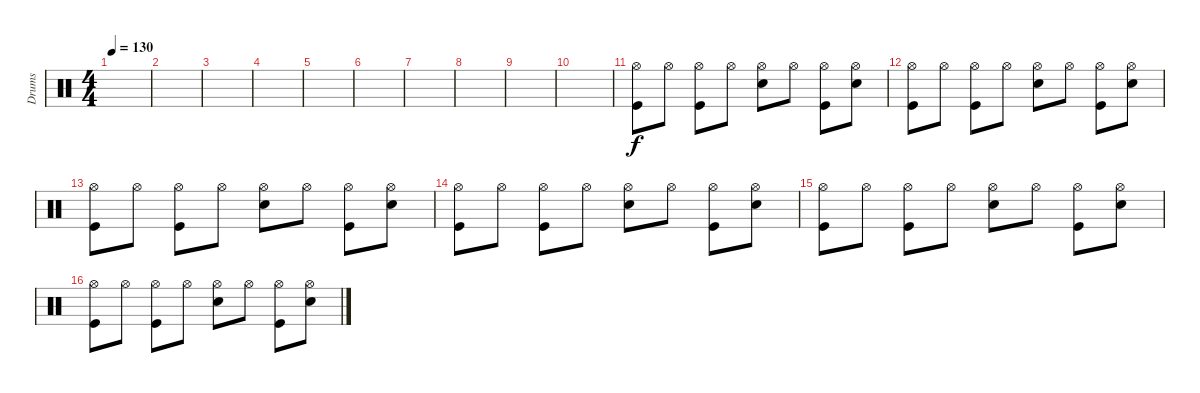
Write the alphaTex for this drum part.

\track ("Drums" "Drums") {instrument percussion}
\staff {score}
\articulation defaults
\ts (4 4)
\tempo 130
\clef neutral
\ks c
|
|
|
|
|
|
|
|
|
|
("Hi-Hat (open)" "Kick (hit)").8 "Hi-Hat (open)".8 ("Hi-Hat (open)" "Kick (hit)").8 "Hi-Hat (open)".8 ("Hi-Hat (open)" "Snare (hit) 2").8 "Hi-Hat (open)".8 ("Hi-Hat (open)" "Kick (hit)").8 ("Hi-Hat (open)" "Snare (hit) 2").8 |
("Hi-Hat (open)" "Kick (hit)").8 "Hi-Hat (open)".8 ("Hi-Hat (open)" "Kick (hit)").8 "Hi-Hat (open)".8 ("Hi-Hat (open)" "Snare (hit) 2").8 "Hi-Hat (open)".8 ("Hi-Hat (open)" "Kick (hit)").8 ("Hi-Hat (open)" "Snare (hit) 2").8 |
("Hi-Hat (open)" "Kick (hit)").8 "Hi-Hat (open)".8 ("Hi-Hat (open)" "Kick (hit)").8 "Hi-Hat (open)".8 ("Hi-Hat (open)" "Snare (hit) 2").8 "Hi-Hat (open)".8 ("Hi-Hat (open)" "Kick (hit)").8 ("Hi-Hat (open)" "Snare (hit) 2").8 |
("Hi-Hat (open)" "Kick (hit)").8 "Hi-Hat (open)".8 ("Hi-Hat (open)" "Kick (hit)").8 "Hi-Hat (open)".8 ("Hi-Hat (open)" "Snare (hit) 2").8 "Hi-Hat (open)".8 ("Hi-Hat (open)" "Kick (hit)").8 ("Hi-Hat (open)" "Snare (hit) 2").8 |
("Hi-Hat (open)" "Kick (hit)").8 "Hi-Hat (open)".8 ("Hi-Hat (open)" "Kick (hit)").8 "Hi-Hat (open)".8 ("Hi-Hat (open)" "Snare (hit) 2").8 "Hi-Hat (open)".8 ("Hi-Hat (open)" "Kick (hit)").8 ("Hi-Hat (open)" "Snare (hit) 2").8 |
("Hi-Hat (open)" "Kick (hit)").8 "Hi-Hat (open)".8 ("Hi-Hat (open)" "Kick (hit)").8 "Hi-Hat (open)".8 ("Hi-Hat (open)" "Snare (hit) 2").8 "Hi-Hat (open)".8 ("Hi-Hat (open)" "Kick (hit)").8 ("Hi-Hat (open)" "Snare (hit) 2").8
